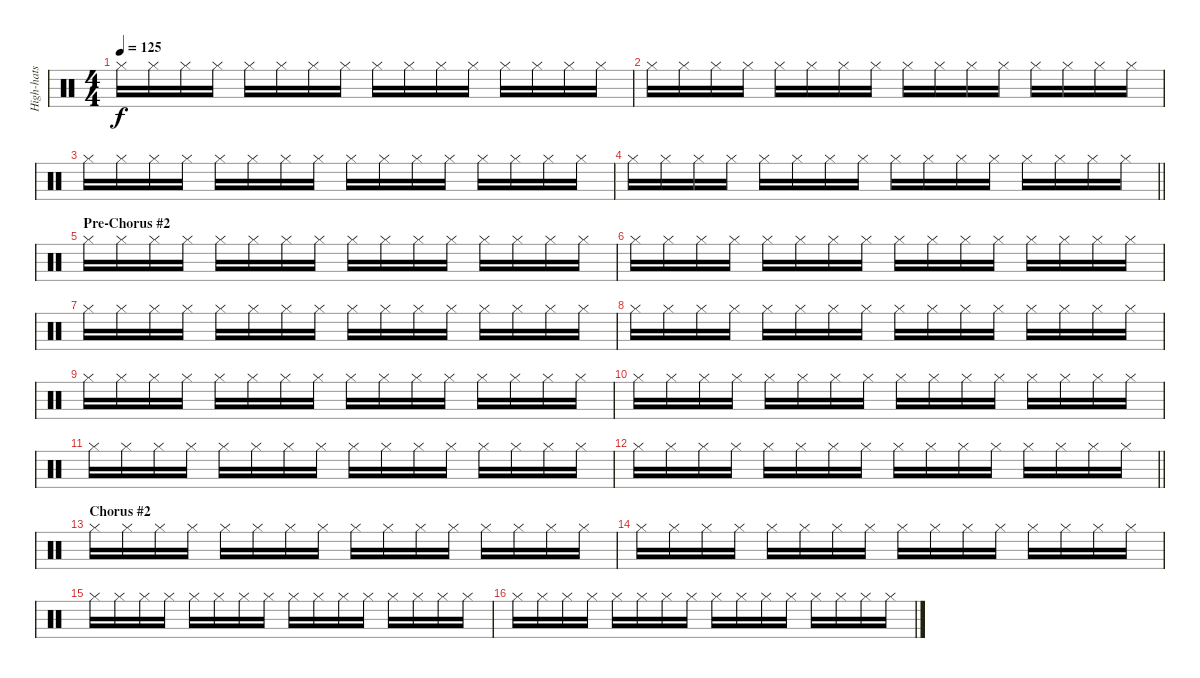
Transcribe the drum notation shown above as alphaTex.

\track ("High-hats" "High-hats") {instrument percussion}
\staff {score}
\articulation defaults
\ts (4 4)
\tempo 125
\clef neutral
\ks c "Hi-Hat (closed)".16{dy f} "Hi-Hat (closed)".16 "Hi-Hat (closed)".16 "Hi-Hat (closed)".16 "Hi-Hat (closed)".16 "Hi-Hat (closed)".16 "Hi-Hat (closed)".16 "Hi-Hat (closed)".16 "Hi-Hat (closed)".16 "Hi-Hat (closed)".16 "Hi-Hat (closed)".16 "Hi-Hat (closed)".16 "Hi-Hat (closed)".16 "Hi-Hat (closed)".16 "Hi-Hat (closed)".16 "Hi-Hat (closed)".16
|
"Hi-Hat (closed)".16 "Hi-Hat (closed)".16 "Hi-Hat (closed)".16 "Hi-Hat (closed)".16 "Hi-Hat (closed)".16 "Hi-Hat (closed)".16 "Hi-Hat (closed)".16 "Hi-Hat (closed)".16 "Hi-Hat (closed)".16 "Hi-Hat (closed)".16 "Hi-Hat (closed)".16 "Hi-Hat (closed)".16 "Hi-Hat (closed)".16 "Hi-Hat (closed)".16 "Hi-Hat (closed)".16 "Hi-Hat (closed)".16 |
"Hi-Hat (closed)".16 "Hi-Hat (closed)".16 "Hi-Hat (closed)".16 "Hi-Hat (closed)".16 "Hi-Hat (closed)".16 "Hi-Hat (closed)".16 "Hi-Hat (closed)".16 "Hi-Hat (closed)".16 "Hi-Hat (closed)".16 "Hi-Hat (closed)".16 "Hi-Hat (closed)".16 "Hi-Hat (closed)".16 "Hi-Hat (closed)".16 "Hi-Hat (closed)".16 "Hi-Hat (closed)".16 "Hi-Hat (closed)".16 |
\barLineRight lightlight "Hi-Hat (closed)".16 "Hi-Hat (closed)".16 "Hi-Hat (closed)".16 "Hi-Hat (closed)".16 "Hi-Hat (closed)".16 "Hi-Hat (closed)".16 "Hi-Hat (closed)".16 "Hi-Hat (closed)".16 "Hi-Hat (closed)".16 "Hi-Hat (closed)".16 "Hi-Hat (closed)".16 "Hi-Hat (closed)".16 "Hi-Hat (closed)".16 "Hi-Hat (closed)".16 "Hi-Hat (closed)".16 "Hi-Hat (closed)".16
|
\section ("" "Pre-Chorus #2")
"Hi-Hat (closed)".16 "Hi-Hat (closed)".16 "Hi-Hat (closed)".16 "Hi-Hat (closed)".16 "Hi-Hat (closed)".16 "Hi-Hat (closed)".16 "Hi-Hat (closed)".16 "Hi-Hat (closed)".16 "Hi-Hat (closed)".16 "Hi-Hat (closed)".16 "Hi-Hat (closed)".16 "Hi-Hat (closed)".16 "Hi-Hat (closed)".16 "Hi-Hat (closed)".16 "Hi-Hat (closed)".16 "Hi-Hat (closed)".16 |
"Hi-Hat (closed)".16 "Hi-Hat (closed)".16 "Hi-Hat (closed)".16 "Hi-Hat (closed)".16 "Hi-Hat (closed)".16 "Hi-Hat (closed)".16 "Hi-Hat (closed)".16 "Hi-Hat (closed)".16 "Hi-Hat (closed)".16 "Hi-Hat (closed)".16 "Hi-Hat (closed)".16 "Hi-Hat (closed)".16 "Hi-Hat (closed)".16 "Hi-Hat (closed)".16 "Hi-Hat (closed)".16 "Hi-Hat (closed)".16 |
"Hi-Hat (closed)".16 "Hi-Hat (closed)".16 "Hi-Hat (closed)".16 "Hi-Hat (closed)".16 "Hi-Hat (closed)".16 "Hi-Hat (closed)".16 "Hi-Hat (closed)".16 "Hi-Hat (closed)".16 "Hi-Hat (closed)".16 "Hi-Hat (closed)".16 "Hi-Hat (closed)".16 "Hi-Hat (closed)".16 "Hi-Hat (closed)".16 "Hi-Hat (closed)".16 "Hi-Hat (closed)".16 "Hi-Hat (closed)".16 |
"Hi-Hat (closed)".16 "Hi-Hat (closed)".16 "Hi-Hat (closed)".16 "Hi-Hat (closed)".16 "Hi-Hat (closed)".16 "Hi-Hat (closed)".16 "Hi-Hat (closed)".16 "Hi-Hat (closed)".16 "Hi-Hat (closed)".16 "Hi-Hat (closed)".16 "Hi-Hat (closed)".16 "Hi-Hat (closed)".16 "Hi-Hat (closed)".16 "Hi-Hat (closed)".16 "Hi-Hat (closed)".16 "Hi-Hat (closed)".16 |
"Hi-Hat (closed)".16 "Hi-Hat (closed)".16 "Hi-Hat (closed)".16 "Hi-Hat (closed)".16 "Hi-Hat (closed)".16 "Hi-Hat (closed)".16 "Hi-Hat (closed)".16 "Hi-Hat (closed)".16 "Hi-Hat (closed)".16 "Hi-Hat (closed)".16 "Hi-Hat (closed)".16 "Hi-Hat (closed)".16 "Hi-Hat (closed)".16 "Hi-Hat (closed)".16 "Hi-Hat (closed)".16 "Hi-Hat (closed)".16 |
"Hi-Hat (closed)".16 "Hi-Hat (closed)".16 "Hi-Hat (closed)".16 "Hi-Hat (closed)".16 "Hi-Hat (closed)".16 "Hi-Hat (closed)".16 "Hi-Hat (closed)".16 "Hi-Hat (closed)".16 "Hi-Hat (closed)".16 "Hi-Hat (closed)".16 "Hi-Hat (closed)".16 "Hi-Hat (closed)".16 "Hi-Hat (closed)".16 "Hi-Hat (closed)".16 "Hi-Hat (closed)".16 "Hi-Hat (closed)".16 |
"Hi-Hat (closed)".16 "Hi-Hat (closed)".16 "Hi-Hat (closed)".16 "Hi-Hat (closed)".16 "Hi-Hat (closed)".16 "Hi-Hat (closed)".16 "Hi-Hat (closed)".16 "Hi-Hat (closed)".16 "Hi-Hat (closed)".16 "Hi-Hat (closed)".16 "Hi-Hat (closed)".16 "Hi-Hat (closed)".16 "Hi-Hat (closed)".16 "Hi-Hat (closed)".16 "Hi-Hat (closed)".16 "Hi-Hat (closed)".16 |
\barLineRight lightlight "Hi-Hat (closed)".16 "Hi-Hat (closed)".16 "Hi-Hat (closed)".16 "Hi-Hat (closed)".16 "Hi-Hat (closed)".16 "Hi-Hat (closed)".16 "Hi-Hat (closed)".16 "Hi-Hat (closed)".16 "Hi-Hat (closed)".16 "Hi-Hat (closed)".16 "Hi-Hat (closed)".16 "Hi-Hat (closed)".16 "Hi-Hat (closed)".16 "Hi-Hat (closed)".16 "Hi-Hat (closed)".16 "Hi-Hat (closed)".16
|
\section ("" "Chorus #2")
"Hi-Hat (closed)".16 "Hi-Hat (closed)".16 "Hi-Hat (closed)".16 "Hi-Hat (closed)".16 "Hi-Hat (closed)".16 "Hi-Hat (closed)".16 "Hi-Hat (closed)".16 "Hi-Hat (closed)".16 "Hi-Hat (closed)".16 "Hi-Hat (closed)".16 "Hi-Hat (closed)".16 "Hi-Hat (closed)".16 "Hi-Hat (closed)".16 "Hi-Hat (closed)".16 "Hi-Hat (closed)".16 "Hi-Hat (closed)".16 |
"Hi-Hat (closed)".16 "Hi-Hat (closed)".16 "Hi-Hat (closed)".16 "Hi-Hat (closed)".16 "Hi-Hat (closed)".16 "Hi-Hat (closed)".16 "Hi-Hat (closed)".16 "Hi-Hat (closed)".16 "Hi-Hat (closed)".16 "Hi-Hat (closed)".16 "Hi-Hat (closed)".16 "Hi-Hat (closed)".16 "Hi-Hat (closed)".16 "Hi-Hat (closed)".16 "Hi-Hat (closed)".16 "Hi-Hat (closed)".16 |
"Hi-Hat (closed)".16 "Hi-Hat (closed)".16 "Hi-Hat (closed)".16 "Hi-Hat (closed)".16 "Hi-Hat (closed)".16 "Hi-Hat (closed)".16 "Hi-Hat (closed)".16 "Hi-Hat (closed)".16 "Hi-Hat (closed)".16 "Hi-Hat (closed)".16 "Hi-Hat (closed)".16 "Hi-Hat (closed)".16 "Hi-Hat (closed)".16 "Hi-Hat (closed)".16 "Hi-Hat (closed)".16 "Hi-Hat (closed)".16 |
"Hi-Hat (closed)".16 "Hi-Hat (closed)".16 "Hi-Hat (closed)".16 "Hi-Hat (closed)".16 "Hi-Hat (closed)".16 "Hi-Hat (closed)".16 "Hi-Hat (closed)".16 "Hi-Hat (closed)".16 "Hi-Hat (closed)".16 "Hi-Hat (closed)".16 "Hi-Hat (closed)".16 "Hi-Hat (closed)".16 "Hi-Hat (closed)".16 "Hi-Hat (closed)".16 "Hi-Hat (closed)".16 "Hi-Hat (closed)".16
